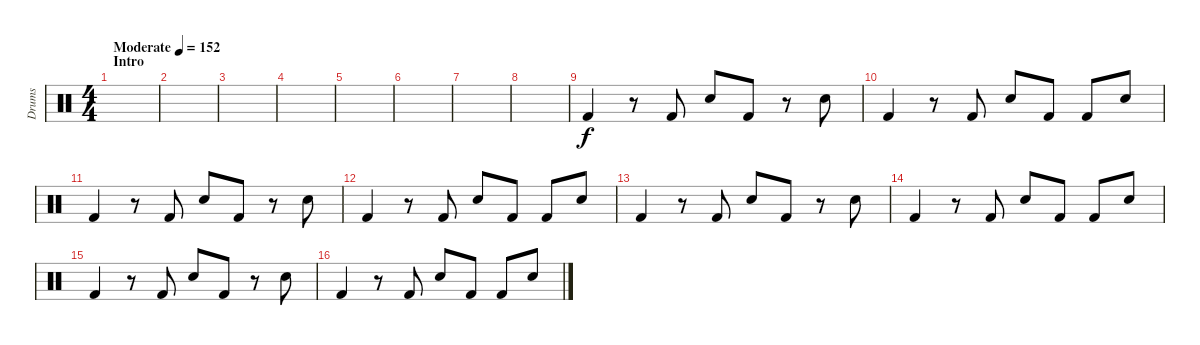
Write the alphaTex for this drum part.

\track ("Drums" "Drums") {instrument percussion}
\staff {score}
\articulation defaults
\ts (4 4)
\section ("" "Intro")
\tempo (152 "Moderate")
\clef neutral
\ks c
|
|
|
|
|
|
|
|
"Kick (hit) 2".4 r.8 "Kick (hit) 2".8 "Electric Snare (hit)".8 "Kick (hit) 2".8 r.8 "Electric Snare (hit)".8 |
"Kick (hit) 2".4 r.8 "Kick (hit) 2".8 "Electric Snare (hit)".8 "Kick (hit) 2".8 "Kick (hit) 2".8 "Electric Snare (hit)".8 |
"Kick (hit) 2".4 r.8 "Kick (hit) 2".8 "Electric Snare (hit)".8 "Kick (hit) 2".8 r.8 "Electric Snare (hit)".8 |
"Kick (hit) 2".4 r.8 "Kick (hit) 2".8 "Electric Snare (hit)".8 "Kick (hit) 2".8 "Kick (hit) 2".8 "Electric Snare (hit)".8 |
"Kick (hit) 2".4 r.8 "Kick (hit) 2".8 "Electric Snare (hit)".8 "Kick (hit) 2".8 r.8 "Electric Snare (hit)".8 |
"Kick (hit) 2".4 r.8 "Kick (hit) 2".8 "Electric Snare (hit)".8 "Kick (hit) 2".8 "Kick (hit) 2".8 "Electric Snare (hit)".8 |
"Kick (hit) 2".4 r.8 "Kick (hit) 2".8 "Electric Snare (hit)".8 "Kick (hit) 2".8 r.8 "Electric Snare (hit)".8 |
"Kick (hit) 2".4 r.8 "Kick (hit) 2".8 "Electric Snare (hit)".8 "Kick (hit) 2".8 "Kick (hit) 2".8 "Electric Snare (hit)".8
